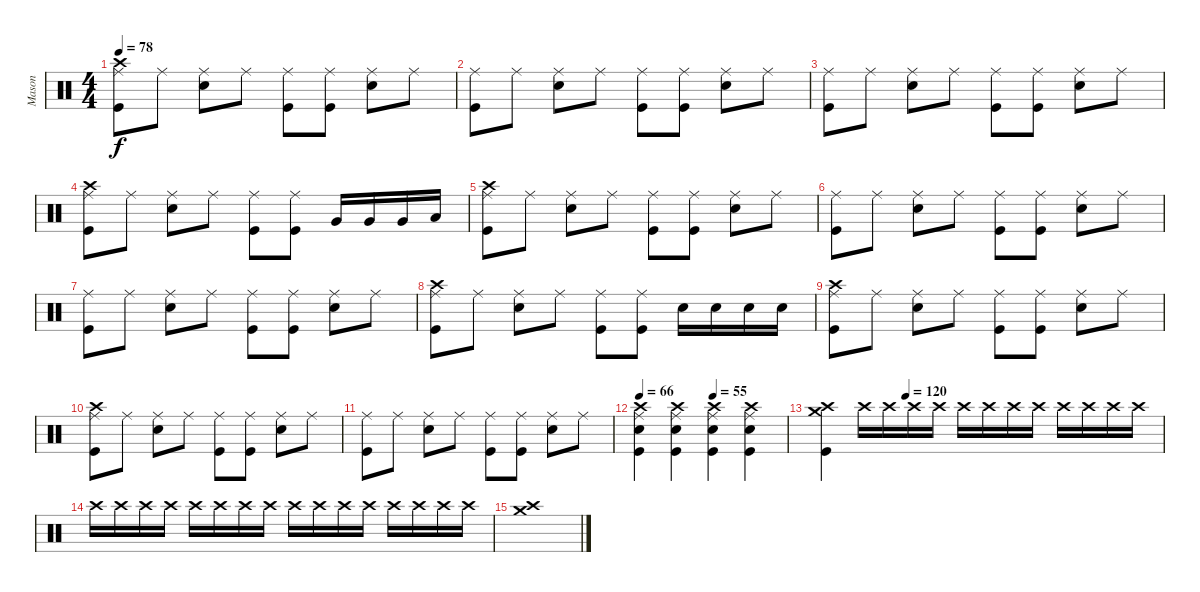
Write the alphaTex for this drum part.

\track ("Mason" "Mason") {instrument percussion}
\staff {score}
\articulation defaults
\ts (4 4)
\tempo 78
\clef neutral
\ks c
("Crash high (hit)" "Ride (middle)" "Kick (hit)").8{dy f} "Ride (middle)".8 ("Ride (middle)" "Electric Snare (hit)").8 "Ride (middle)".8 ("Ride (middle)" "Kick (hit)").8 ("Ride (middle)" "Kick (hit)").8 ("Ride (middle)" "Electric Snare (hit)").8 "Ride (middle)".8 |
("Ride (middle)" "Kick (hit)").8 "Ride (middle)".8 ("Ride (middle)" "Electric Snare (hit)").8 "Ride (middle)".8 ("Ride (middle)" "Kick (hit)").8 ("Ride (middle)" "Kick (hit)").8 ("Ride (middle)" "Electric Snare (hit)").8 "Ride (middle)".8 |
("Ride (middle)" "Kick (hit)").8 "Ride (middle)".8 ("Ride (middle)" "Electric Snare (hit)").8 "Ride (middle)".8 ("Ride (middle)" "Kick (hit)").8 ("Ride (middle)" "Kick (hit)").8 ("Ride (middle)" "Electric Snare (hit)").8 "Ride (middle)".8 |
("Crash high (hit)" "Ride (middle)" "Kick (hit)").8 "Ride (middle)".8 ("Ride (middle)" "Electric Snare (hit)").8 "Ride (middle)".8 ("Ride (middle)" "Kick (hit)").8 ("Ride (middle)" "Kick (hit)").8 "Very Low Tom (hit)".16 "Very Low Tom (hit)".16 "Very Low Tom (hit)".16 "Low Floor Tom (hit)".16 |
("Crash high (hit)" "Ride (middle)" "Kick (hit)").8 "Ride (middle)".8 ("Ride (middle)" "Electric Snare (hit)").8 "Ride (middle)".8 ("Ride (middle)" "Kick (hit)").8 ("Ride (middle)" "Kick (hit)").8 ("Ride (middle)" "Electric Snare (hit)").8 "Ride (middle)".8 |
("Ride (middle)" "Kick (hit)").8 "Ride (middle)".8 ("Ride (middle)" "Electric Snare (hit)").8 "Ride (middle)".8 ("Ride (middle)" "Kick (hit)").8 ("Ride (middle)" "Kick (hit)").8 ("Ride (middle)" "Electric Snare (hit)").8 "Ride (middle)".8 |
("Ride (middle)" "Kick (hit)").8 "Ride (middle)".8 ("Ride (middle)" "Electric Snare (hit)").8 "Ride (middle)".8 ("Ride (middle)" "Kick (hit)").8 ("Ride (middle)" "Kick (hit)").8 ("Ride (middle)" "Electric Snare (hit)").8 "Ride (middle)".8 |
("Crash high (hit)" "Ride (middle)" "Kick (hit)").8 "Ride (middle)".8 ("Ride (middle)" "Electric Snare (hit)").8 "Ride (middle)".8 ("Ride (middle)" "Kick (hit)").8 ("Ride (middle)" "Kick (hit)").8 "Electric Snare (hit)".16 "Electric Snare (hit)".16 "Electric Snare (hit)".16 "Electric Snare (hit)".16 |
("Crash high (hit)" "Ride (middle)" "Kick (hit)").8 "Ride (middle)".8 ("Ride (middle)" "Electric Snare (hit)").8 "Ride (middle)".8 ("Ride (middle)" "Kick (hit)").8 ("Ride (middle)" "Kick (hit)").8 ("Ride (middle)" "Electric Snare (hit)").8 "Ride (middle)".8 |
("Crash high (hit)" "Ride (middle)" "Kick (hit)").8 "Ride (middle)".8 ("Ride (middle)" "Electric Snare (hit)").8 "Ride (middle)".8 ("Ride (middle)" "Kick (hit)").8 ("Ride (middle)" "Kick (hit)").8 ("Ride (middle)" "Electric Snare (hit)").8 "Ride (middle)".8 |
("Ride (middle)" "Kick (hit)").8 "Ride (middle)".8 ("Ride (middle)" "Electric Snare (hit)").8 "Ride (middle)".8 ("Ride (middle)" "Kick (hit)").8 ("Ride (middle)" "Kick (hit)").8 ("Ride (middle)" "Electric Snare (hit)").8 "Ride (middle)".8 |
\tempo 66
\tempo (55 0.5)
("Crash high (hit)" "Ride (middle)" "Electric Snare (hit)" "Kick (hit)").4 ("Crash high (hit)" "Ride (middle)" "Electric Snare (hit)" "Kick (hit)").4 ("Crash high (hit)" "Ride (middle)" "Electric Snare (hit)" "Kick (hit)").4 ("Crash high (hit)" "Ride (middle)" "Electric Snare (hit)" "Kick (hit)").4 |
\tempo (120 0.25)
("Crash high (hit)" "Crash medium (hit)" "Kick (hit)").4 "Crash high (hit)".16 "Crash high (hit)".16 "Crash high (hit)".16 "Crash high (hit)".16 "Crash high (hit)".16 "Crash high (hit)".16 "Crash high (hit)".16 "Crash high (hit)".16 "Crash high (hit)".16 "Crash high (hit)".16 "Crash high (hit)".16 "Crash high (hit)".16 |
"Crash high (hit)".16 "Crash high (hit)".16 "Crash high (hit)".16 "Crash high (hit)".16 "Crash high (hit)".16 "Crash high (hit)".16 "Crash high (hit)".16 "Crash high (hit)".16 "Crash high (hit)".16 "Crash high (hit)".16 "Crash high (hit)".16 "Crash high (hit)".16 "Crash high (hit)".16 "Crash high (hit)".16 "Crash high (hit)".16 "Crash high (hit)".16 |
("Crash medium (hit)" "Crash high (hit)").1
